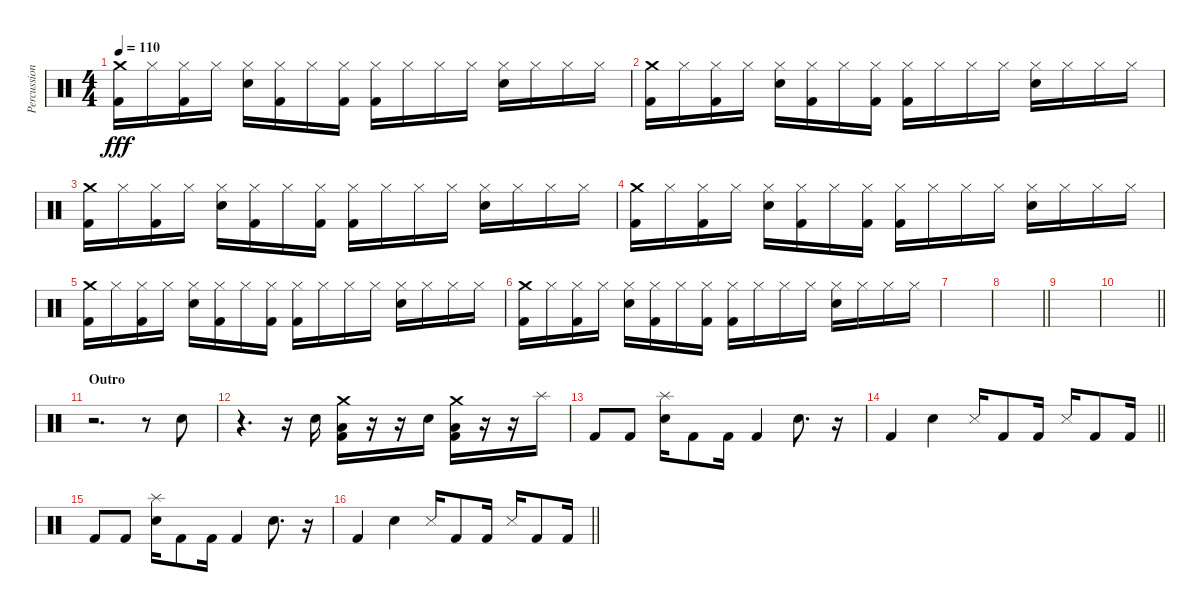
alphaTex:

\track ("Percussion" "Percussion") {instrument percussion}
\staff {score}
\articulation defaults
\ts (4 4)
\tempo 110
\clef neutral
\ks c
("Crash medium (hit)" "Kick (hit) 2").16{dy fff} "Hi-Hat (closed)".16 ("Hi-Hat (closed)" "Kick (hit) 2").16 "Hi-Hat (closed)".16 ("Hi-Hat (closed)" "Snare (hit) 2").16 ("Hi-Hat (closed)" "Kick (hit) 2").16 "Hi-Hat (closed)".16 ("Hi-Hat (closed)" "Kick (hit) 2").16 ("Hi-Hat (closed)" "Kick (hit) 2").16 "Hi-Hat (closed)".16 "Hi-Hat (closed)".16 "Hi-Hat (closed)".16 ("Hi-Hat (closed)" "Snare (hit) 2").16 "Hi-Hat (closed)".16 "Hi-Hat (closed)".16 "Hi-Hat (closed)".16 |
("Crash medium (hit)" "Kick (hit) 2").16 "Hi-Hat (closed)".16 ("Hi-Hat (closed)" "Kick (hit) 2").16 "Hi-Hat (closed)".16 ("Hi-Hat (closed)" "Snare (hit) 2").16 ("Hi-Hat (closed)" "Kick (hit) 2").16 "Hi-Hat (closed)".16 ("Hi-Hat (closed)" "Kick (hit) 2").16 ("Hi-Hat (closed)" "Kick (hit) 2").16 "Hi-Hat (closed)".16 "Hi-Hat (closed)".16 "Hi-Hat (closed)".16 ("Hi-Hat (closed)" "Snare (hit) 2").16 "Hi-Hat (closed)".16 "Hi-Hat (closed)".16 "Hi-Hat (closed)".16 |
("Crash medium (hit)" "Kick (hit) 2").16 "Hi-Hat (closed)".16 ("Hi-Hat (closed)" "Kick (hit) 2").16 "Hi-Hat (closed)".16 ("Hi-Hat (closed)" "Snare (hit) 2").16 ("Hi-Hat (closed)" "Kick (hit) 2").16 "Hi-Hat (closed)".16 ("Hi-Hat (closed)" "Kick (hit) 2").16 ("Hi-Hat (closed)" "Kick (hit) 2").16 "Hi-Hat (closed)".16 "Hi-Hat (closed)".16 "Hi-Hat (closed)".16 ("Hi-Hat (closed)" "Snare (hit) 2").16 "Hi-Hat (closed)".16 "Hi-Hat (closed)".16 "Hi-Hat (closed)".16 |
("Crash medium (hit)" "Kick (hit) 2").16 "Hi-Hat (closed)".16 ("Hi-Hat (closed)" "Kick (hit) 2").16 "Hi-Hat (closed)".16 ("Hi-Hat (closed)" "Snare (hit) 2").16 ("Hi-Hat (closed)" "Kick (hit) 2").16 "Hi-Hat (closed)".16 ("Hi-Hat (closed)" "Kick (hit) 2").16 ("Hi-Hat (closed)" "Kick (hit) 2").16 "Hi-Hat (closed)".16 "Hi-Hat (closed)".16 "Hi-Hat (closed)".16 ("Hi-Hat (closed)" "Snare (hit) 2").16 "Hi-Hat (closed)".16 "Hi-Hat (closed)".16 "Hi-Hat (closed)".16 |
("Crash medium (hit)" "Kick (hit) 2").16 "Hi-Hat (closed)".16 ("Hi-Hat (closed)" "Kick (hit) 2").16 "Hi-Hat (closed)".16 ("Hi-Hat (closed)" "Snare (hit) 2").16 ("Hi-Hat (closed)" "Kick (hit) 2").16 "Hi-Hat (closed)".16 ("Hi-Hat (closed)" "Kick (hit) 2").16 ("Hi-Hat (closed)" "Kick (hit) 2").16 "Hi-Hat (closed)".16 "Hi-Hat (closed)".16 "Hi-Hat (closed)".16 ("Hi-Hat (closed)" "Snare (hit) 2").16 "Hi-Hat (closed)".16 "Hi-Hat (closed)".16 "Hi-Hat (closed)".16 |
("Crash medium (hit)" "Kick (hit) 2").16 "Hi-Hat (closed)".16 ("Hi-Hat (closed)" "Kick (hit) 2").16 "Hi-Hat (closed)".16 ("Hi-Hat (closed)" "Snare (hit) 2").16 ("Hi-Hat (closed)" "Kick (hit) 2").16 "Hi-Hat (closed)".16 ("Hi-Hat (closed)" "Kick (hit) 2").16 ("Hi-Hat (closed)" "Kick (hit) 2").16 "Hi-Hat (closed)".16 "Hi-Hat (closed)".16 "Hi-Hat (closed)".16 ("Hi-Hat (closed)" "Snare (hit) 2").16 "Hi-Hat (closed)".16 "Hi-Hat (closed)".16 "Hi-Hat (closed)".16 |
|
\barLineRight lightlight
|
|
\barLineRight lightlight
|
\section ("" "Outro")
r.2{d} r.8 "Snare (hit) 2".8 |
r.4{d} r.16 "Snare (hit) 2".16 ("Crash medium (hit)" "Kick (hit) 2" "Low Floor Tom (hit)").16 r.16 r.16 "Snare (hit) 2".16 ("Crash medium (hit)" "Kick (hit) 2" "Low Floor Tom (hit)").16 r.16 r.16 "Splash (hit)".16 |
"Kick (hit) 2".8 "Kick (hit) 2".8 ("Splash (hit)" "Snare (hit) 2").16 "Kick (hit) 2".8 "Kick (hit) 2".16 "Kick (hit) 2".4 "Snare (hit) 2".8{d} r.16 |
\barLineRight lightlight "Kick (hit) 2".4 "Snare (hit) 2".4 "Snare (side stick) 3".16 "Kick (hit) 2".8 "Kick (hit) 2".16 "Snare (side stick) 3".16 "Kick (hit) 2".8 "Kick (hit) 2".16
|
"Kick (hit) 2".8 "Kick (hit) 2".8 ("Splash (hit)" "Snare (hit) 2").16 "Kick (hit) 2".8 "Kick (hit) 2".16 "Kick (hit) 2".4 "Snare (hit) 2".8{d} r.16 |
\barLineRight lightlight "Kick (hit) 2".4 "Snare (hit) 2".4 "Snare (side stick) 3".16 "Kick (hit) 2".8 "Kick (hit) 2".16 "Snare (side stick) 3".16 "Kick (hit) 2".8 "Kick (hit) 2".16
